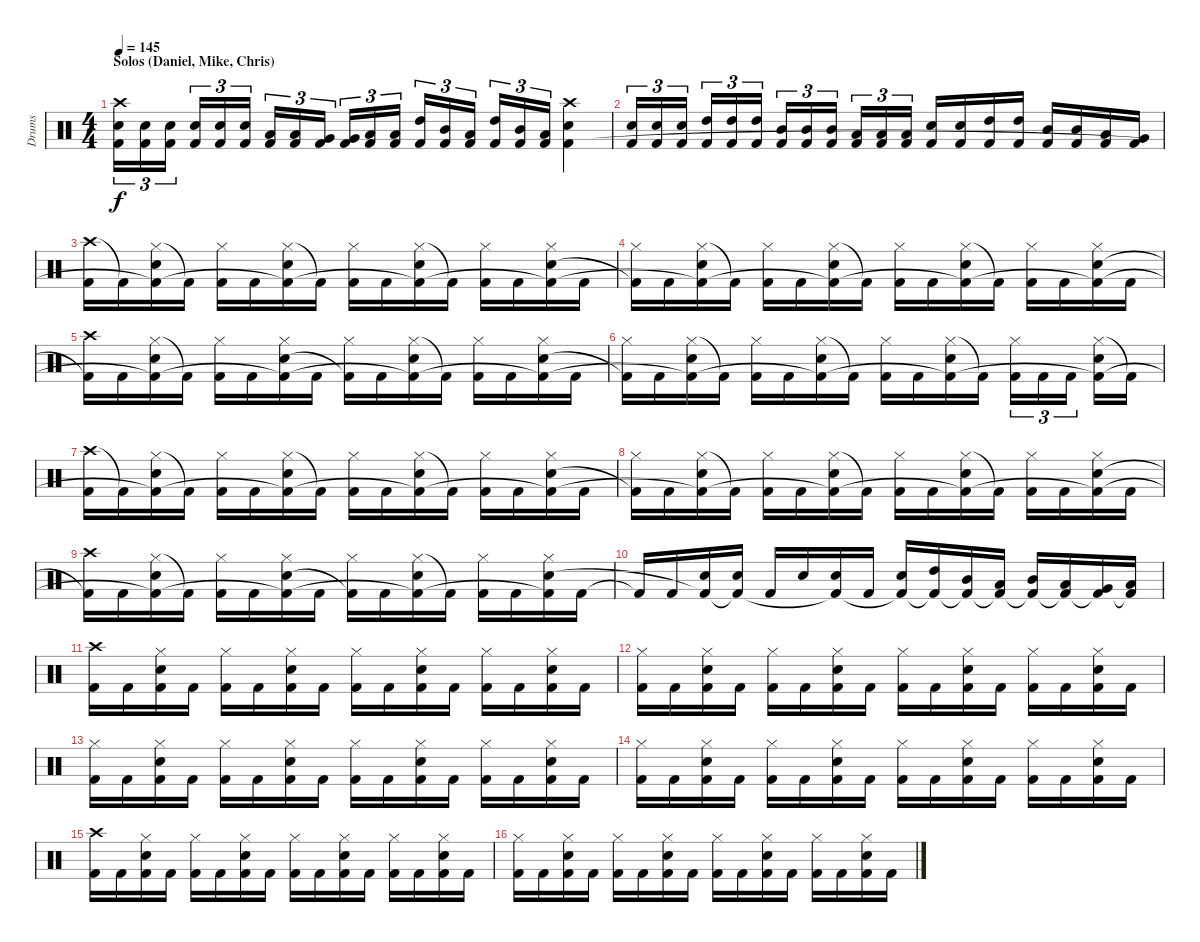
\track ("Drums" "Drums") {instrument percussion}
\staff {score}
\articulation defaults
\ts (4 4)
\section ("" "Solos (Daniel, Mike, Chris)")
\tempo 145
\clef neutral
\ks c
("Crash high (hit)" "Electric Snare (hit)" "Kick (hit) 2").16{tu (3 2) dy f} ("Electric Snare (hit)" "Kick (hit) 2").16{tu (3 2)} ("Electric Snare (hit)" "Kick (hit) 2").16{tu (3 2) beam splitsecondary} ("Electric Snare (hit)" "Kick (hit) 2").16{tu (3 2)} ("Electric Snare (hit)" "Kick (hit) 2").16{tu (3 2)} ("Electric Snare (hit)" "Kick (hit) 2").16{tu (3 2)} ("Low Tom (hit)" "Kick (hit) 2").16{tu (3 2)} ("Low Tom (hit)" "Kick (hit) 2").16{tu (3 2)} ("Very Low Tom (hit)" "Kick (hit) 2").16{tu (3 2) beam splitsecondary} ("Very Low Tom (hit)" "Kick (hit) 2").16{tu (3 2)} ("Low Floor Tom (hit)" "Kick (hit) 2").16{tu (3 2)} ("Low Floor Tom (hit)" "Kick (hit) 2").16{tu (3 2)} ("High Tom (hit)" "Kick (hit) 2").16{tu (3 2)} ("Mid Tom (hit)" "Kick (hit) 2").16{tu (3 2)} ("Low Tom (hit)" "Kick (hit) 2").16{tu (3 2) beam splitsecondary} ("High Tom (hit)" "Kick (hit) 2").16{tu (3 2)} ("Mid Tom (hit)" "Kick (hit) 2").16{tu (3 2)} ("Low Tom (hit)" "Kick (hit) 2").16{tu (3 2)} ("Crash high (hit)" "Electric Snare (hit)" "Kick (hit) 2").4 |
("Electric Snare (hit)" "Kick (hit) 2").16{tu (3 2)} ("Electric Snare (hit)" "Kick (hit) 2").16{tu (3 2)} ("Electric Snare (hit)" "Kick (hit) 2").16{tu (3 2) beam splitsecondary} ("High Tom (hit)" "Kick (hit) 2").16{tu (3 2)} ("High Tom (hit)" "Kick (hit) 2").16{tu (3 2)} ("High Tom (hit)" "Kick (hit) 2").16{tu (3 2)} ("Mid Tom (hit)" "Kick (hit) 2").16{tu (3 2)} ("Mid Tom (hit)" "Kick (hit) 2").16{tu (3 2)} ("Mid Tom (hit)" "Kick (hit) 2").16{tu (3 2) beam splitsecondary} ("Low Tom (hit)" "Kick (hit) 2").16{tu (3 2)} ("Low Tom (hit)" "Kick (hit) 2").16{tu (3 2)} ("Low Tom (hit)" "Kick (hit) 2").16{tu (3 2)} ("Electric Snare (hit)" "Kick (hit) 2").16 ("Electric Snare (hit)" "Kick (hit) 2").16 ("High Tom (hit)" "Kick (hit) 2").16 ("High Tom (hit)" "Kick (hit) 2").16 ("Mid Tom (hit)" "Kick (hit) 2").16 ("Mid Tom (hit)" "Kick (hit) 2").16 ("Low Tom (hit)" "Kick (hit) 2").16 ("Very Low Tom (hit)" "Kick (hit) 2").16 |
("Crash high (hit)" "Kick (hit) 2").16 "Kick (hit) 2"{t}.16 ("Hi-Hat (closed)" "Electric Snare (hit)" "Kick (hit) 2"{t}).16 "Kick (hit) 2"{t}.16 ("Hi-Hat (closed)" "Kick (hit) 2").16 "Kick (hit) 2".16 ("Hi-Hat (closed)" "Electric Snare (hit)" "Kick (hit) 2"{t}).16 "Kick (hit) 2"{t}.16 ("Hi-Hat (closed)" "Kick (hit) 2").16 "Kick (hit) 2".16 ("Hi-Hat (closed)" "Electric Snare (hit)" "Kick (hit) 2"{t}).16 "Kick (hit) 2"{t}.16 ("Hi-Hat (closed)" "Kick (hit) 2").16 "Kick (hit) 2".16 ("Hi-Hat (closed)" "Electric Snare (hit)" "Kick (hit) 2"{t}).16 "Kick (hit) 2".16 |
("Hi-Hat (closed)" "Kick (hit) 2"{t}).16 "Kick (hit) 2".16 ("Hi-Hat (closed)" "Electric Snare (hit)" "Kick (hit) 2"{t}).16 "Kick (hit) 2"{t}.16 ("Hi-Hat (closed)" "Kick (hit) 2").16 "Kick (hit) 2".16 ("Hi-Hat (closed)" "Electric Snare (hit)" "Kick (hit) 2"{t}).16 "Kick (hit) 2"{t}.16 ("Hi-Hat (closed)" "Kick (hit) 2").16 "Kick (hit) 2".16 ("Hi-Hat (closed)" "Electric Snare (hit)" "Kick (hit) 2"{t}).16 "Kick (hit) 2"{t}.16 ("Hi-Hat (closed)" "Kick (hit) 2").16 "Kick (hit) 2".16 ("Hi-Hat (closed)" "Electric Snare (hit)" "Kick (hit) 2"{t}).16 "Kick (hit) 2".16 |
("Crash high (hit)" "Kick (hit) 2"{t}).16 "Kick (hit) 2".16 ("Hi-Hat (closed)" "Electric Snare (hit)" "Kick (hit) 2"{t}).16 "Kick (hit) 2"{t}.16 ("Hi-Hat (closed)" "Kick (hit) 2").16 "Kick (hit) 2".16 ("Hi-Hat (closed)" "Electric Snare (hit)" "Kick (hit) 2"{t}).16 "Kick (hit) 2".16 ("Hi-Hat (closed)" "Kick (hit) 2"{t}).16 "Kick (hit) 2".16 ("Hi-Hat (closed)" "Electric Snare (hit)" "Kick (hit) 2"{t}).16 "Kick (hit) 2"{t}.16 ("Hi-Hat (closed)" "Kick (hit) 2").16 "Kick (hit) 2".16 ("Hi-Hat (closed)" "Electric Snare (hit)" "Kick (hit) 2"{t}).16 "Kick (hit) 2".16 |
("Hi-Hat (closed)" "Kick (hit) 2"{t}).16 "Kick (hit) 2".16 ("Hi-Hat (closed)" "Electric Snare (hit)" "Kick (hit) 2"{t}).16 "Kick (hit) 2"{t}.16 ("Hi-Hat (closed)" "Kick (hit) 2").16 "Kick (hit) 2".16 ("Hi-Hat (closed)" "Electric Snare (hit)" "Kick (hit) 2"{t}).16 "Kick (hit) 2"{t}.16 ("Hi-Hat (closed)" "Kick (hit) 2").16 "Kick (hit) 2".16 ("Hi-Hat (closed)" "Electric Snare (hit)" "Kick (hit) 2"{t}).16 "Kick (hit) 2"{t}.16 ("Hi-Hat (closed)" "Kick (hit) 2").16{tu (3 2)} "Kick (hit) 2".16{tu (3 2)} "Kick (hit) 2".16{tu (3 2) beam splitsecondary} ("Hi-Hat (closed)" "Electric Snare (hit)" "Kick (hit) 2"{t}).16 "Kick (hit) 2"{t}.16 |
("Crash high (hit)" "Kick (hit) 2").16 "Kick (hit) 2"{t}.16 ("Hi-Hat (closed)" "Electric Snare (hit)" "Kick (hit) 2"{t}).16 "Kick (hit) 2"{t}.16 ("Hi-Hat (closed)" "Kick (hit) 2").16 "Kick (hit) 2".16 ("Hi-Hat (closed)" "Electric Snare (hit)" "Kick (hit) 2"{t}).16 "Kick (hit) 2"{t}.16 ("Hi-Hat (closed)" "Kick (hit) 2").16 "Kick (hit) 2".16 ("Hi-Hat (closed)" "Electric Snare (hit)" "Kick (hit) 2"{t}).16 "Kick (hit) 2"{t}.16 ("Hi-Hat (closed)" "Kick (hit) 2").16 "Kick (hit) 2".16 ("Hi-Hat (closed)" "Electric Snare (hit)" "Kick (hit) 2"{t}).16 "Kick (hit) 2".16 |
("Hi-Hat (closed)" "Kick (hit) 2"{t}).16 "Kick (hit) 2".16 ("Hi-Hat (closed)" "Electric Snare (hit)" "Kick (hit) 2"{t}).16 "Kick (hit) 2"{t}.16 ("Hi-Hat (closed)" "Kick (hit) 2").16 "Kick (hit) 2".16 ("Hi-Hat (closed)" "Electric Snare (hit)" "Kick (hit) 2"{t}).16 "Kick (hit) 2"{t}.16 ("Hi-Hat (closed)" "Kick (hit) 2").16 "Kick (hit) 2".16 ("Hi-Hat (closed)" "Electric Snare (hit)" "Kick (hit) 2"{t}).16 "Kick (hit) 2"{t}.16 ("Hi-Hat (closed)" "Kick (hit) 2").16 "Kick (hit) 2".16 ("Hi-Hat (closed)" "Electric Snare (hit)" "Kick (hit) 2"{t}).16 "Kick (hit) 2".16 |
("Crash high (hit)" "Kick (hit) 2"{t}).16 "Kick (hit) 2".16 ("Hi-Hat (closed)" "Electric Snare (hit)" "Kick (hit) 2"{t}).16 "Kick (hit) 2"{t}.16 ("Hi-Hat (closed)" "Kick (hit) 2").16 "Kick (hit) 2".16 ("Hi-Hat (closed)" "Electric Snare (hit)" "Kick (hit) 2"{t}).16 "Kick (hit) 2".16 ("Hi-Hat (closed)" "Kick (hit) 2"{t}).16 "Kick (hit) 2".16 ("Hi-Hat (closed)" "Electric Snare (hit)" "Kick (hit) 2"{t}).16 "Kick (hit) 2"{t}.16 ("Hi-Hat (closed)" "Kick (hit) 2").16 "Kick (hit) 2".16 ("Hi-Hat (closed)" "Electric Snare (hit)" "Kick (hit) 2"{t}).16 "Kick (hit) 2".16 |
"Kick (hit) 2"{t}.16 "Kick (hit) 2".16 ("Electric Snare (hit)" "Kick (hit) 2"{t}).16 ("Electric Snare (hit)" "Kick (hit) 2"{t}).16 "Kick (hit) 2".16 "Electric Snare (hit)".16 ("Electric Snare (hit)" "Kick (hit) 2"{t}).16 "Kick (hit) 2".16 ("Electric Snare (hit)" "Kick (hit) 2"{t}).16 ("High Tom (hit)" "Kick (hit) 2"{t}).16 ("Mid Tom (hit)" "Kick (hit) 2"{t}).16 ("Low Tom (hit)" "Kick (hit) 2"{t}).16 ("Mid Tom (hit)" "Kick (hit) 2"{t}).16 ("Low Tom (hit)" "Kick (hit) 2"{t}).16 ("Very Low Tom (hit)" "Kick (hit) 2"{t}).16 ("Low Floor Tom (hit)" "Kick (hit) 2"{t}).16 |
("Crash high (hit)" "Kick (hit) 2").16 "Kick (hit) 2".16 ("Hi-Hat (closed)" "Electric Snare (hit)" "Kick (hit) 2").16 "Kick (hit) 2".16 ("Hi-Hat (closed)" "Kick (hit) 2").16 "Kick (hit) 2".16 ("Hi-Hat (closed)" "Electric Snare (hit)" "Kick (hit) 2").16 "Kick (hit) 2".16 ("Hi-Hat (closed)" "Kick (hit) 2").16 "Kick (hit) 2".16 ("Hi-Hat (closed)" "Electric Snare (hit)" "Kick (hit) 2").16 "Kick (hit) 2".16 ("Hi-Hat (closed)" "Kick (hit) 2").16 "Kick (hit) 2".16 ("Hi-Hat (closed)" "Electric Snare (hit)" "Kick (hit) 2").16 "Kick (hit) 2".16 |
("Hi-Hat (closed)" "Kick (hit) 2").16 "Kick (hit) 2".16 ("Hi-Hat (closed)" "Electric Snare (hit)" "Kick (hit) 2").16 "Kick (hit) 2".16 ("Hi-Hat (closed)" "Kick (hit) 2").16 "Kick (hit) 2".16 ("Hi-Hat (closed)" "Electric Snare (hit)" "Kick (hit) 2").16 "Kick (hit) 2".16 ("Hi-Hat (closed)" "Kick (hit) 2").16 "Kick (hit) 2".16 ("Hi-Hat (closed)" "Electric Snare (hit)" "Kick (hit) 2").16 "Kick (hit) 2".16 ("Hi-Hat (closed)" "Kick (hit) 2").16 "Kick (hit) 2".16 ("Hi-Hat (closed)" "Electric Snare (hit)" "Kick (hit) 2").16 "Kick (hit) 2".16 |
("Hi-Hat (closed)" "Kick (hit) 2").16 "Kick (hit) 2".16 ("Hi-Hat (closed)" "Electric Snare (hit)" "Kick (hit) 2").16 "Kick (hit) 2".16 ("Hi-Hat (closed)" "Kick (hit) 2").16 "Kick (hit) 2".16 ("Hi-Hat (closed)" "Electric Snare (hit)" "Kick (hit) 2").16 "Kick (hit) 2".16 ("Hi-Hat (closed)" "Kick (hit) 2").16 "Kick (hit) 2".16 ("Hi-Hat (closed)" "Electric Snare (hit)" "Kick (hit) 2").16 "Kick (hit) 2".16 ("Hi-Hat (closed)" "Kick (hit) 2").16 "Kick (hit) 2".16 ("Hi-Hat (closed)" "Electric Snare (hit)" "Kick (hit) 2").16 "Kick (hit) 2".16 |
("Hi-Hat (closed)" "Kick (hit) 2").16 "Kick (hit) 2".16 ("Hi-Hat (closed)" "Electric Snare (hit)" "Kick (hit) 2").16 "Kick (hit) 2".16 ("Hi-Hat (closed)" "Kick (hit) 2").16 "Kick (hit) 2".16 ("Hi-Hat (closed)" "Electric Snare (hit)" "Kick (hit) 2").16 "Kick (hit) 2".16 ("Hi-Hat (closed)" "Kick (hit) 2").16 "Kick (hit) 2".16 ("Hi-Hat (closed)" "Electric Snare (hit)" "Kick (hit) 2").16 "Kick (hit) 2".16 ("Hi-Hat (closed)" "Kick (hit) 2").16 "Kick (hit) 2".16 ("Hi-Hat (closed)" "Electric Snare (hit)" "Kick (hit) 2").16 "Kick (hit) 2".16 |
("Crash high (hit)" "Kick (hit) 2").16 "Kick (hit) 2".16 ("Hi-Hat (closed)" "Electric Snare (hit)" "Kick (hit) 2").16 "Kick (hit) 2".16 ("Hi-Hat (closed)" "Kick (hit) 2").16 "Kick (hit) 2".16 ("Hi-Hat (closed)" "Electric Snare (hit)" "Kick (hit) 2").16 "Kick (hit) 2".16 ("Hi-Hat (closed)" "Kick (hit) 2").16 "Kick (hit) 2".16 ("Hi-Hat (closed)" "Electric Snare (hit)" "Kick (hit) 2").16 "Kick (hit) 2".16 ("Hi-Hat (closed)" "Kick (hit) 2").16 "Kick (hit) 2".16 ("Hi-Hat (closed)" "Electric Snare (hit)" "Kick (hit) 2").16 "Kick (hit) 2".16 |
("Hi-Hat (closed)" "Kick (hit) 2").16 "Kick (hit) 2".16 ("Hi-Hat (closed)" "Electric Snare (hit)" "Kick (hit) 2").16 "Kick (hit) 2".16 ("Hi-Hat (closed)" "Kick (hit) 2").16 "Kick (hit) 2".16 ("Hi-Hat (closed)" "Electric Snare (hit)" "Kick (hit) 2").16 "Kick (hit) 2".16 ("Hi-Hat (closed)" "Kick (hit) 2").16 "Kick (hit) 2".16 ("Hi-Hat (closed)" "Electric Snare (hit)" "Kick (hit) 2").16 "Kick (hit) 2".16 ("Hi-Hat (closed)" "Kick (hit) 2").16 "Kick (hit) 2".16 ("Hi-Hat (closed)" "Electric Snare (hit)" "Kick (hit) 2").16 "Kick (hit) 2".16
